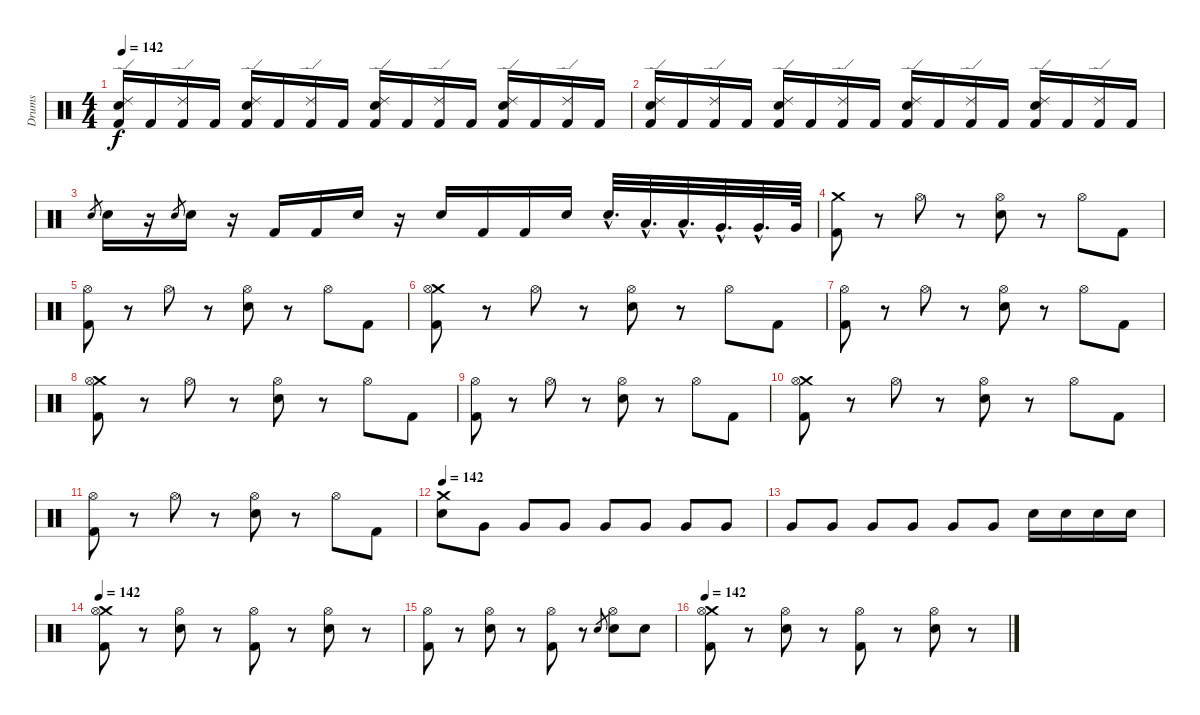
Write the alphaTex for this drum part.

\track ("Drums" "Drums") {instrument percussion}
\staff {score}
\articulation defaults
\ts (4 4)
\tempo 142
\clef neutral
\ks c
("Kick (hit) 2" "Snare (hit) 2" "Ride (edge) 2").16{dy f} "Kick (hit) 2".16 ("Kick (hit) 2" "Ride (edge) 2").16 "Kick (hit) 2".16 ("Kick (hit) 2" "Ride (edge) 2" "Snare (hit) 2").16 "Kick (hit) 2".16 ("Kick (hit) 2" "Ride (edge) 2").16 "Kick (hit) 2".16 ("Kick (hit) 2" "Ride (edge) 2" "Snare (hit) 2").16 "Kick (hit) 2".16 ("Kick (hit) 2" "Ride (edge) 2").16 "Kick (hit) 2".16 ("Kick (hit) 2" "Ride (edge) 2" "Snare (hit) 2").16 "Kick (hit) 2".16 ("Kick (hit) 2" "Ride (edge) 2").16 "Kick (hit) 2".16 |
("Kick (hit) 2" "Snare (hit) 2" "Ride (edge) 2").16 "Kick (hit) 2".16 ("Kick (hit) 2" "Ride (edge) 2").16 "Kick (hit) 2".16 ("Kick (hit) 2" "Ride (edge) 2" "Snare (hit) 2").16 "Kick (hit) 2".16 ("Kick (hit) 2" "Ride (edge) 2").16 "Kick (hit) 2".16 ("Kick (hit) 2" "Ride (edge) 2" "Snare (hit) 2").16 "Kick (hit) 2".16 ("Kick (hit) 2" "Ride (edge) 2").16 "Kick (hit) 2".16 ("Kick (hit) 2" "Ride (edge) 2" "Snare (hit) 2").16 "Kick (hit) 2".16 ("Kick (hit) 2" "Ride (edge) 2").16 "Kick (hit) 2".16 |
"Snare (hit) 2".8{gr} "Snare (hit) 2".16 r.16 "Snare (hit) 2".8{gr} "Snare (hit) 2".16 r.16 "Kick (hit) 2".16 "Kick (hit) 2".16 "Snare (hit) 2".16 r.16 "Snare (hit) 2".16 "Kick (hit) 2".16 "Kick (hit) 2".16 "Snare (hit) 2".16 "Snare (hit) 2"{hac}.32{d} "Low Tom (hit)"{hac}.32{d} "Low Tom (hit)"{hac}.32{d} "Very Low Tom (hit)"{hac}.32{d} "Very Low Tom (hit)"{hac}.32{d} "Very Low Tom (hit)".64 |
("Kick (hit) 2" "Crash medium (hit)").8 r.8 "Hi-Hat (open)".8 r.8 ("Snare (hit) 2" "Hi-Hat (open)").8 r.8 "Hi-Hat (open)".8 "Kick (hit) 2".8 |
("Kick (hit) 2" "Hi-Hat (open)").8 r.8 "Hi-Hat (open)".8 r.8 ("Snare (hit) 2" "Hi-Hat (open)").8 r.8 "Hi-Hat (open)".8 "Kick (hit) 2".8 |
("Kick (hit) 2" "Crash medium (hit)" "Hi-Hat (open)").8 r.8 "Hi-Hat (open)".8 r.8 ("Snare (hit) 2" "Hi-Hat (open)").8 r.8 "Hi-Hat (open)".8 "Kick (hit) 2".8 |
("Kick (hit) 2" "Hi-Hat (open)").8 r.8 "Hi-Hat (open)".8 r.8 ("Snare (hit) 2" "Hi-Hat (open)").8 r.8 "Hi-Hat (open)".8 "Kick (hit) 2".8 |
("Kick (hit) 2" "Crash medium (hit)" "Hi-Hat (open)").8 r.8 "Hi-Hat (open)".8 r.8 ("Snare (hit) 2" "Hi-Hat (open)").8 r.8 "Hi-Hat (open)".8 "Kick (hit) 2".8 |
("Kick (hit) 2" "Hi-Hat (open)").8 r.8 "Hi-Hat (open)".8 r.8 ("Snare (hit) 2" "Hi-Hat (open)").8 r.8 "Hi-Hat (open)".8 "Kick (hit) 2".8 |
("Kick (hit) 2" "Crash medium (hit)" "Hi-Hat (open)").8 r.8 "Hi-Hat (open)".8 r.8 ("Snare (hit) 2" "Hi-Hat (open)").8 r.8 "Hi-Hat (open)".8 "Kick (hit) 2".8 |
("Kick (hit) 2" "Hi-Hat (open)").8 r.8 "Hi-Hat (open)".8 r.8 ("Snare (hit) 2" "Hi-Hat (open)").8 r.8 "Hi-Hat (open)".8 "Kick (hit) 2".8 |
\tempo 142
("Snare (hit) 2" "Crash medium (hit)").8 "Very Low Tom (hit)".8{volume 2} "Very Low Tom (hit)".8{volume 14} "Very Low Tom (hit)".8 "Very Low Tom (hit)".8 "Very Low Tom (hit)".8 "Very Low Tom (hit)".8 "Very Low Tom (hit)".8 |
"Very Low Tom (hit)".8 "Very Low Tom (hit)".8 "Very Low Tom (hit)".8 "Very Low Tom (hit)".8 "Very Low Tom (hit)".8 "Very Low Tom (hit)".8 "Snare (hit) 2".16 "Snare (hit) 2".16 "Snare (hit) 2".16 "Snare (hit) 2".16 |
\tempo 142
("Kick (hit) 2" "Crash medium (hit)" "Hi-Hat (open)").8 r.8 ("Snare (hit) 2" "Hi-Hat (open)").8 r.8 ("Kick (hit) 2" "Hi-Hat (open)").8 r.8 ("Snare (hit) 2" "Hi-Hat (open)").8 r.8 |
("Kick (hit) 2" "Hi-Hat (open)").8 r.8 ("Snare (hit) 2" "Hi-Hat (open)").8 r.8 ("Kick (hit) 2" "Hi-Hat (open)").8 r.8 "Snare (hit) 2".8{gr} ("Snare (hit) 2" "Hi-Hat (open)").8 "Snare (hit) 2".8 |
\tempo 142
("Kick (hit) 2" "Crash medium (hit)" "Hi-Hat (open)").8 r.8 ("Snare (hit) 2" "Hi-Hat (open)").8 r.8 ("Kick (hit) 2" "Hi-Hat (open)").8 r.8 ("Snare (hit) 2" "Hi-Hat (open)").8 r.8
